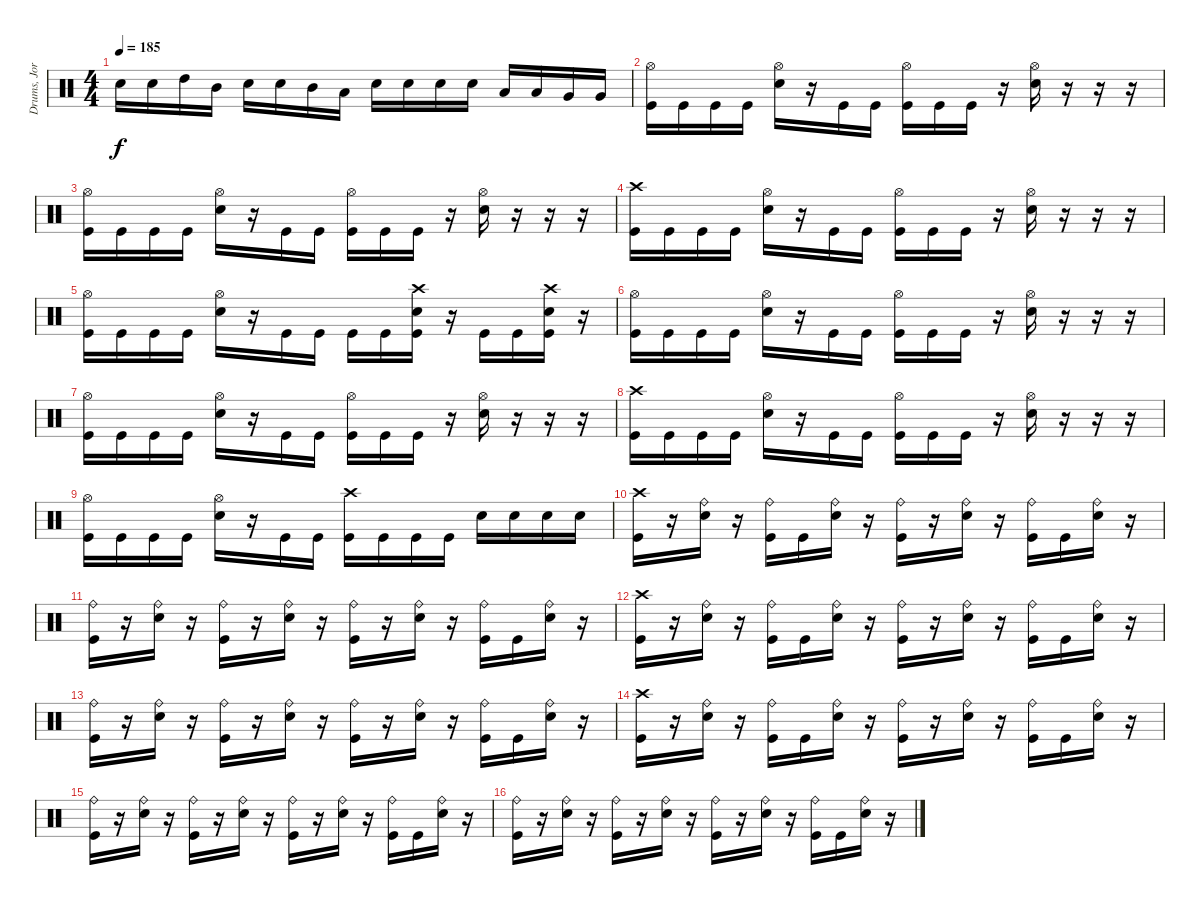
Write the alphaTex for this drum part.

\track ("Drums, Jorye Sáez" "Drums, Jor") {instrument percussion}
\staff {score}
\articulation defaults
\ts (4 4)
\tempo 185
\clef neutral
\ks c "Electric Snare (hit)".16{dy f} "Electric Snare (hit)".16 "High Tom (hit)".16 "Mid Tom (hit)".16 "Electric Snare (hit)".16 "Electric Snare (hit)".16 "Mid Tom (hit)".16 "Low Tom (hit)".16 "Electric Snare (hit)".16 "Electric Snare (hit)".16 "Electric Snare (hit)".16 "Electric Snare (hit)".16 "Low Tom (hit)".16 "Low Tom (hit)".16 "Very Low Tom (hit)".16 "Very Low Tom (hit)".16
|
("Kick (hit)" "Hi-Hat (open)").16 "Kick (hit)".16 "Kick (hit)".16 "Kick (hit)".16 ("Electric Snare (hit)" "Hi-Hat (open)").16 r.16 "Kick (hit)".16 "Kick (hit)".16 ("Kick (hit)" "Hi-Hat (open)").16 "Kick (hit)".16 "Kick (hit)".16 r.16 ("Electric Snare (hit)" "Hi-Hat (open)").16 r.16 r.16 r.16 |
("Kick (hit)" "Hi-Hat (open)").16 "Kick (hit)".16 "Kick (hit)".16 "Kick (hit)".16 ("Electric Snare (hit)" "Hi-Hat (open)").16 r.16 "Kick (hit)".16 "Kick (hit)".16 ("Kick (hit)" "Hi-Hat (open)").16 "Kick (hit)".16 "Kick (hit)".16 r.16 ("Electric Snare (hit)" "Hi-Hat (open)").16 r.16 r.16 r.16 |
("Kick (hit)" "Crash high (hit)").16 "Kick (hit)".16 "Kick (hit)".16 "Kick (hit)".16 ("Electric Snare (hit)" "Hi-Hat (open)").16 r.16 "Kick (hit)".16 "Kick (hit)".16 ("Kick (hit)" "Hi-Hat (open)").16 "Kick (hit)".16 "Kick (hit)".16 r.16 ("Electric Snare (hit)" "Hi-Hat (open)").16 r.16 r.16 r.16 |
("Kick (hit)" "Hi-Hat (open)").16 "Kick (hit)".16 "Kick (hit)".16 "Kick (hit)".16 ("Electric Snare (hit)" "Hi-Hat (open)").16 r.16 "Kick (hit)".16 "Kick (hit)".16 "Kick (hit)".16 "Kick (hit)".16 ("Kick (hit)" "Crash high (hit)" "Electric Snare (hit)").16 r.16 "Kick (hit)".16 "Kick (hit)".16 ("Electric Snare (hit)" "Crash high (hit)" "Kick (hit)").16 r.16 |
("Kick (hit)" "Hi-Hat (open)").16 "Kick (hit)".16 "Kick (hit)".16 "Kick (hit)".16 ("Electric Snare (hit)" "Hi-Hat (open)").16 r.16 "Kick (hit)".16 "Kick (hit)".16 ("Kick (hit)" "Hi-Hat (open)").16 "Kick (hit)".16 "Kick (hit)".16 r.16 ("Electric Snare (hit)" "Hi-Hat (open)").16 r.16 r.16 r.16 |
("Kick (hit)" "Hi-Hat (open)").16 "Kick (hit)".16 "Kick (hit)".16 "Kick (hit)".16 ("Electric Snare (hit)" "Hi-Hat (open)").16 r.16 "Kick (hit)".16 "Kick (hit)".16 ("Kick (hit)" "Hi-Hat (open)").16 "Kick (hit)".16 "Kick (hit)".16 r.16 ("Electric Snare (hit)" "Hi-Hat (open)").16 r.16 r.16 r.16 |
("Kick (hit)" "Crash high (hit)").16 "Kick (hit)".16 "Kick (hit)".16 "Kick (hit)".16 ("Electric Snare (hit)" "Hi-Hat (open)").16 r.16 "Kick (hit)".16 "Kick (hit)".16 ("Kick (hit)" "Hi-Hat (open)").16 "Kick (hit)".16 "Kick (hit)".16 r.16 ("Electric Snare (hit)" "Hi-Hat (open)").16 r.16 r.16 r.16 |
("Kick (hit)" "Hi-Hat (open)").16 "Kick (hit)".16 "Kick (hit)".16 "Kick (hit)".16 ("Electric Snare (hit)" "Hi-Hat (open)").16 r.16 "Kick (hit)".16 "Kick (hit)".16 ("Kick (hit)" "Crash high (hit)").16 "Kick (hit)".16 "Kick (hit)".16 "Kick (hit)".16 "Electric Snare (hit)".16 "Electric Snare (hit)".16 "Electric Snare (hit)".16 "Electric Snare (hit)".16 |
("Crash high (hit)" "Kick (hit)").16 r.16 ("Ride (bell)" "Electric Snare (hit)").16 r.16 ("Ride (bell)" "Kick (hit)").16 "Kick (hit)".16 ("Ride (bell)" "Electric Snare (hit)").16 r.16 ("Ride (bell)" "Kick (hit)").16 r.16 ("Ride (bell)" "Electric Snare (hit)").16 r.16 ("Ride (bell)" "Kick (hit)").16 "Kick (hit)".16 ("Ride (bell)" "Electric Snare (hit)").16 r.16 |
("Ride (bell)" "Kick (hit)").16 r.16 ("Ride (bell)" "Electric Snare (hit)").16 r.16 ("Ride (bell)" "Kick (hit)").16 r.16 ("Ride (bell)" "Electric Snare (hit)").16 r.16 ("Ride (bell)" "Kick (hit)").16 r.16 ("Ride (bell)" "Electric Snare (hit)").16 r.16 ("Ride (bell)" "Kick (hit)").16 "Kick (hit)".16 ("Ride (bell)" "Electric Snare (hit)").16 r.16 |
("Crash high (hit)" "Kick (hit)").16 r.16 ("Ride (bell)" "Electric Snare (hit)").16 r.16 ("Ride (bell)" "Kick (hit)").16 "Kick (hit)".16 ("Ride (bell)" "Electric Snare (hit)").16 r.16 ("Ride (bell)" "Kick (hit)").16 r.16 ("Ride (bell)" "Electric Snare (hit)").16 r.16 ("Ride (bell)" "Kick (hit)").16 "Kick (hit)".16 ("Ride (bell)" "Electric Snare (hit)").16 r.16 |
("Ride (bell)" "Kick (hit)").16 r.16 ("Ride (bell)" "Electric Snare (hit)").16 r.16 ("Ride (bell)" "Kick (hit)").16 r.16 ("Ride (bell)" "Electric Snare (hit)").16 r.16 ("Ride (bell)" "Kick (hit)").16 r.16 ("Ride (bell)" "Electric Snare (hit)").16 r.16 ("Ride (bell)" "Kick (hit)").16 "Kick (hit)".16 ("Ride (bell)" "Electric Snare (hit)").16 r.16 |
("Crash high (hit)" "Kick (hit)").16 r.16 ("Ride (bell)" "Electric Snare (hit)").16 r.16 ("Ride (bell)" "Kick (hit)").16 "Kick (hit)".16 ("Ride (bell)" "Electric Snare (hit)").16 r.16 ("Ride (bell)" "Kick (hit)").16 r.16 ("Ride (bell)" "Electric Snare (hit)").16 r.16 ("Ride (bell)" "Kick (hit)").16 "Kick (hit)".16 ("Ride (bell)" "Electric Snare (hit)").16 r.16 |
("Ride (bell)" "Kick (hit)").16 r.16 ("Ride (bell)" "Electric Snare (hit)").16 r.16 ("Ride (bell)" "Kick (hit)").16 r.16 ("Ride (bell)" "Electric Snare (hit)").16 r.16 ("Ride (bell)" "Kick (hit)").16 r.16 ("Ride (bell)" "Electric Snare (hit)").16 r.16 ("Ride (bell)" "Kick (hit)").16 "Kick (hit)".16 ("Ride (bell)" "Electric Snare (hit)").16 r.16 |
("Ride (bell)" "Kick (hit)").16 r.16 ("Ride (bell)" "Electric Snare (hit)").16 r.16 ("Ride (bell)" "Kick (hit)").16 r.16 ("Ride (bell)" "Electric Snare (hit)").16 r.16 ("Ride (bell)" "Kick (hit)").16 r.16 ("Ride (bell)" "Electric Snare (hit)").16 r.16 ("Ride (bell)" "Kick (hit)").16 "Kick (hit)".16 ("Ride (bell)" "Electric Snare (hit)").16 r.16
